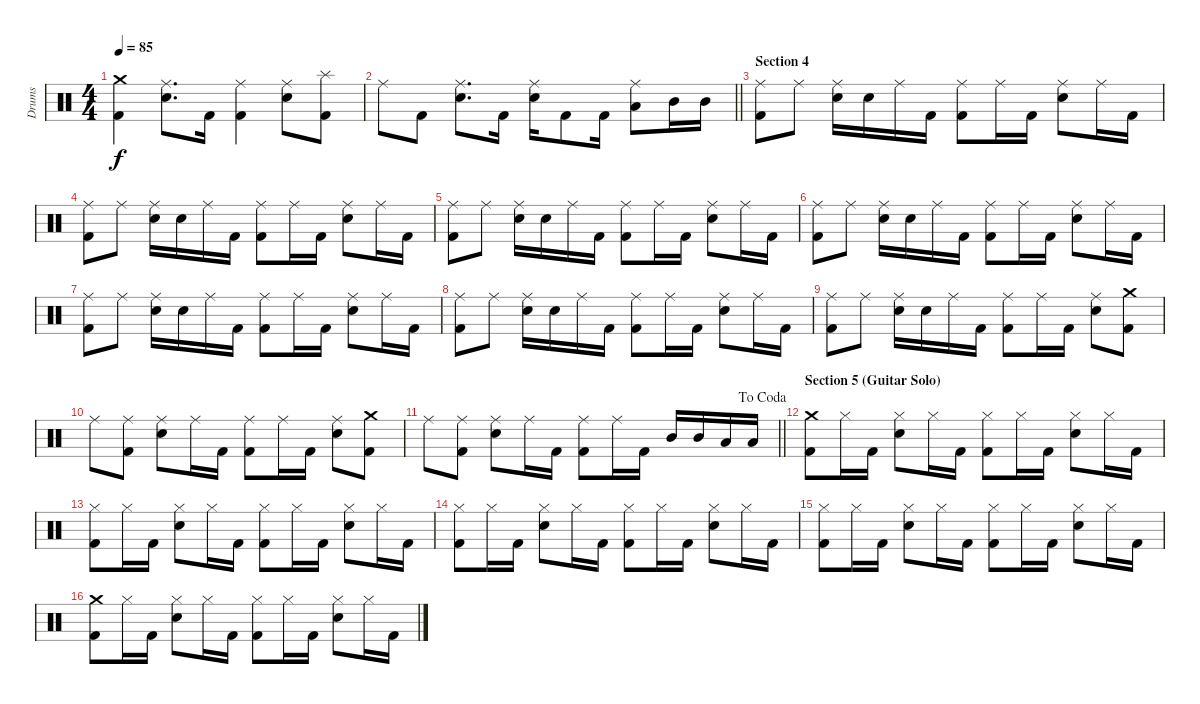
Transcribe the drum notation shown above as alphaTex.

\track ("Drums" "Drums") {instrument percussion}
\staff {score}
\articulation defaults
\ts (4 4)
\tempo 85
\clef neutral
\ks c
("Crash medium (hit)" "Kick (hit) 2").4{dy f} ("Ride (middle)" "Snare (hit) 2").8{d} "Kick (hit) 2".16 ("Ride (middle)" "Kick (hit) 2").4 ("Ride (middle)" "Snare (hit) 2").8 ("Splash (hit)" "Kick (hit) 2").8 |
\barLineRight lightlight "Ride (middle)".8 "Kick (hit) 2".8
("Ride (middle)" "Snare (hit) 2").8{d} "Kick (hit) 2".16 ("Ride (middle)" "Snare (hit) 2").16 "Kick (hit) 2".8 "Kick (hit) 2".16 ("Ride (middle)" "Low Tom (hit)").8 "Mid Tom (hit)".16 "Mid Tom (hit)".16 |
\section ("" "Section 4")
("Ride (middle)" "Kick (hit) 2").8 "Ride (middle)".8 ("Ride (middle)" "Snare (hit) 2").16 "Snare (hit) 2".16 "Ride (middle)".16 "Kick (hit) 2".16 ("Ride (middle)" "Kick (hit) 2").8 "Ride (middle)".16 "Kick (hit) 2".16 ("Ride (middle)" "Snare (hit) 2").8 "Ride (middle)".16 "Kick (hit) 2".16 |
("Ride (middle)" "Kick (hit) 2").8 "Ride (middle)".8 ("Ride (middle)" "Snare (hit) 2").16 "Snare (hit) 2".16 "Ride (middle)".16 "Kick (hit) 2".16 ("Ride (middle)" "Kick (hit) 2").8 "Ride (middle)".16 "Kick (hit) 2".16 ("Ride (middle)" "Snare (hit) 2").8 "Ride (middle)".16 "Kick (hit) 2".16 |
("Ride (middle)" "Kick (hit) 2").8 "Ride (middle)".8 ("Ride (middle)" "Snare (hit) 2").16 "Snare (hit) 2".16 "Ride (middle)".16 "Kick (hit) 2".16 ("Ride (middle)" "Kick (hit) 2").8 "Ride (middle)".16 "Kick (hit) 2".16 ("Ride (middle)" "Snare (hit) 2").8 "Ride (middle)".16 "Kick (hit) 2".16 |
("Ride (middle)" "Kick (hit) 2").8 "Ride (middle)".8 ("Ride (middle)" "Snare (hit) 2").16 "Snare (hit) 2".16 "Ride (middle)".16 "Kick (hit) 2".16 ("Ride (middle)" "Kick (hit) 2").8 "Ride (middle)".16 "Kick (hit) 2".16 ("Ride (middle)" "Snare (hit) 2").8 "Ride (middle)".16 "Kick (hit) 2".16 |
("Ride (middle)" "Kick (hit) 2").8 "Ride (middle)".8 ("Ride (middle)" "Snare (hit) 2").16 "Snare (hit) 2".16 "Ride (middle)".16 "Kick (hit) 2".16 ("Ride (middle)" "Kick (hit) 2").8 "Ride (middle)".16 "Kick (hit) 2".16 ("Ride (middle)" "Snare (hit) 2").8 "Ride (middle)".16 "Kick (hit) 2".16 |
("Ride (middle)" "Kick (hit) 2").8 "Ride (middle)".8 ("Ride (middle)" "Snare (hit) 2").16 "Snare (hit) 2".16 "Ride (middle)".16 "Kick (hit) 2".16 ("Ride (middle)" "Kick (hit) 2").8 "Ride (middle)".16 "Kick (hit) 2".16 ("Ride (middle)" "Snare (hit) 2").8 "Ride (middle)".16 "Kick (hit) 2".16 |
("Ride (middle)" "Kick (hit) 2").8 "Ride (middle)".8 ("Ride (middle)" "Snare (hit) 2").16 "Snare (hit) 2".16 "Ride (middle)".16 "Kick (hit) 2".16 ("Ride (middle)" "Kick (hit) 2").8 "Ride (middle)".16 "Kick (hit) 2".16 ("Ride (middle)" "Snare (hit) 2").8 ("Crash medium (hit)" "Kick (hit) 2").8 |
"Ride (middle)".8 ("Ride (middle)" "Kick (hit) 2").8 ("Ride (middle)" "Snare (hit) 2").8 "Ride (middle)".16 "Kick (hit) 2".16 ("Ride (middle)" "Kick (hit) 2").8 "Ride (middle)".16 "Kick (hit) 2".16 ("Ride (middle)" "Snare (hit) 2").8 ("Crash medium (hit)" "Kick (hit) 2").8 |
\jump dacoda
\barLineRight lightlight "Ride (middle)".8
("Ride (middle)" "Kick (hit) 2").8 ("Ride (middle)" "Snare (hit) 2").8 "Ride (middle)".16 "Kick (hit) 2".16 ("Ride (middle)" "Kick (hit) 2").8 "Ride (middle)".16 "Kick (hit) 2".16 "Mid Tom (hit)".16 "Mid Tom (hit)".16 "Low Tom (hit)".16 "Low Tom (hit)".16 |
\section ("" "Section 5 (Guitar Solo)")
("Crash medium (hit)" "Kick (hit) 2").8 "Hi-Hat (closed)".16 "Kick (hit) 2".16 ("Hi-Hat (closed)" "Snare (hit) 2").8 "Hi-Hat (closed)".16 "Kick (hit) 2".16 ("Hi-Hat (closed)" "Kick (hit) 2").8 "Hi-Hat (closed)".16 "Kick (hit) 2".16 ("Hi-Hat (closed)" "Snare (hit) 2").8 "Hi-Hat (closed)".16 "Kick (hit) 2".16 |
("Hi-Hat (closed)" "Kick (hit) 2").8 "Hi-Hat (closed)".16 "Kick (hit) 2".16 ("Hi-Hat (closed)" "Snare (hit) 2").8 "Hi-Hat (closed)".16 "Kick (hit) 2".16 ("Hi-Hat (closed)" "Kick (hit) 2").8 "Hi-Hat (closed)".16 "Kick (hit) 2".16 ("Hi-Hat (closed)" "Snare (hit) 2").8 "Hi-Hat (closed)".16 "Kick (hit) 2".16 |
("Hi-Hat (closed)" "Kick (hit) 2").8 "Hi-Hat (closed)".16 "Kick (hit) 2".16 ("Hi-Hat (closed)" "Snare (hit) 2").8 "Hi-Hat (closed)".16 "Kick (hit) 2".16 ("Hi-Hat (closed)" "Kick (hit) 2").8 "Hi-Hat (closed)".16 "Kick (hit) 2".16 ("Hi-Hat (closed)" "Snare (hit) 2").8 "Hi-Hat (closed)".16 "Kick (hit) 2".16 |
("Hi-Hat (closed)" "Kick (hit) 2").8 "Hi-Hat (closed)".16 "Kick (hit) 2".16 ("Hi-Hat (closed)" "Snare (hit) 2").8 "Hi-Hat (closed)".16 "Kick (hit) 2".16 ("Hi-Hat (closed)" "Kick (hit) 2").8 "Hi-Hat (closed)".16 "Kick (hit) 2".16 ("Hi-Hat (closed)" "Snare (hit) 2").8 "Hi-Hat (closed)".16 "Kick (hit) 2".16 |
("Crash medium (hit)" "Kick (hit) 2").8 "Hi-Hat (closed)".16 "Kick (hit) 2".16 ("Hi-Hat (closed)" "Snare (hit) 2").8 "Hi-Hat (closed)".16 "Kick (hit) 2".16 ("Hi-Hat (closed)" "Kick (hit) 2").8 "Hi-Hat (closed)".16 "Kick (hit) 2".16 ("Hi-Hat (closed)" "Snare (hit) 2").8 "Hi-Hat (closed)".16 "Kick (hit) 2".16
